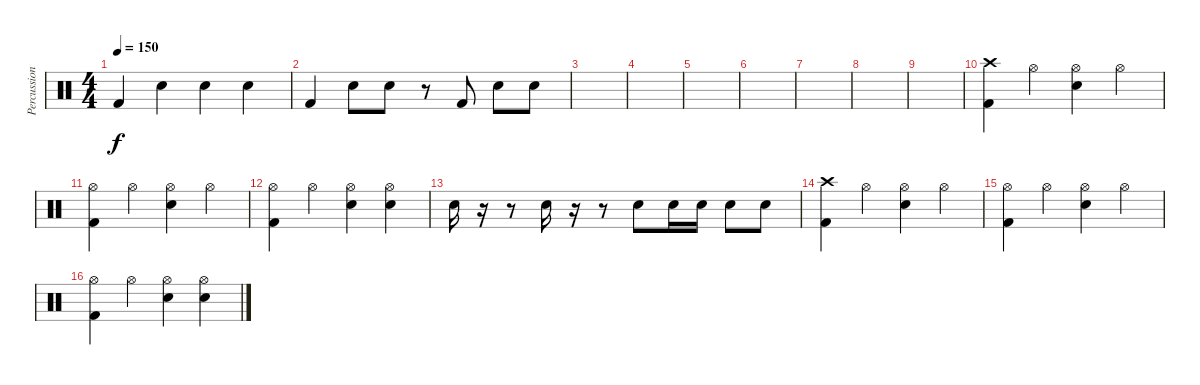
\track ("Percussion" "Percussion") {instrument percussion}
\staff {score}
\articulation defaults
\ts (4 4)
\tempo 150
\clef neutral
\ks c "Kick (hit) 2".4{dy f} "Snare (hit) 2".4 "Snare (hit) 2".4 "Snare (hit) 2".4
|
"Kick (hit) 2".4 "Snare (hit) 2".8 "Snare (hit) 2".8 r.8 "Kick (hit) 2".8 "Snare (hit) 2".8 "Snare (hit) 2".8 |
|
|
|
|
|
|
|
("Crash high (hit)" "Kick (hit) 2").4 "Hi-Hat (open)".4 ("Hi-Hat (open)" "Electric Snare (hit)").4 "Hi-Hat (open)".4 |
("Hi-Hat (open)" "Kick (hit) 2").4 "Hi-Hat (open)".4 ("Hi-Hat (open)" "Electric Snare (hit)").4 "Hi-Hat (open)".4 |
("Hi-Hat (open)" "Kick (hit) 2").4 "Hi-Hat (open)".4 ("Hi-Hat (open)" "Electric Snare (hit)").4 ("Hi-Hat (open)" "Electric Snare (hit)").4 |
"Snare (hit) 2".16 r.16 r.8 "Snare (hit) 2".16 r.16 r.8 "Snare (hit) 2".8 "Snare (hit) 2".16 "Snare (hit) 2".16 "Snare (hit) 2".8 "Snare (hit) 2".8 |
("Crash high (hit)" "Kick (hit) 2").4 "Hi-Hat (open)".4 ("Hi-Hat (open)" "Electric Snare (hit)").4 "Hi-Hat (open)".4 |
("Hi-Hat (open)" "Kick (hit) 2").4 "Hi-Hat (open)".4 ("Hi-Hat (open)" "Electric Snare (hit)").4 "Hi-Hat (open)".4 |
("Hi-Hat (open)" "Kick (hit) 2").4 "Hi-Hat (open)".4 ("Hi-Hat (open)" "Electric Snare (hit)").4 ("Hi-Hat (open)" "Electric Snare (hit)").4
